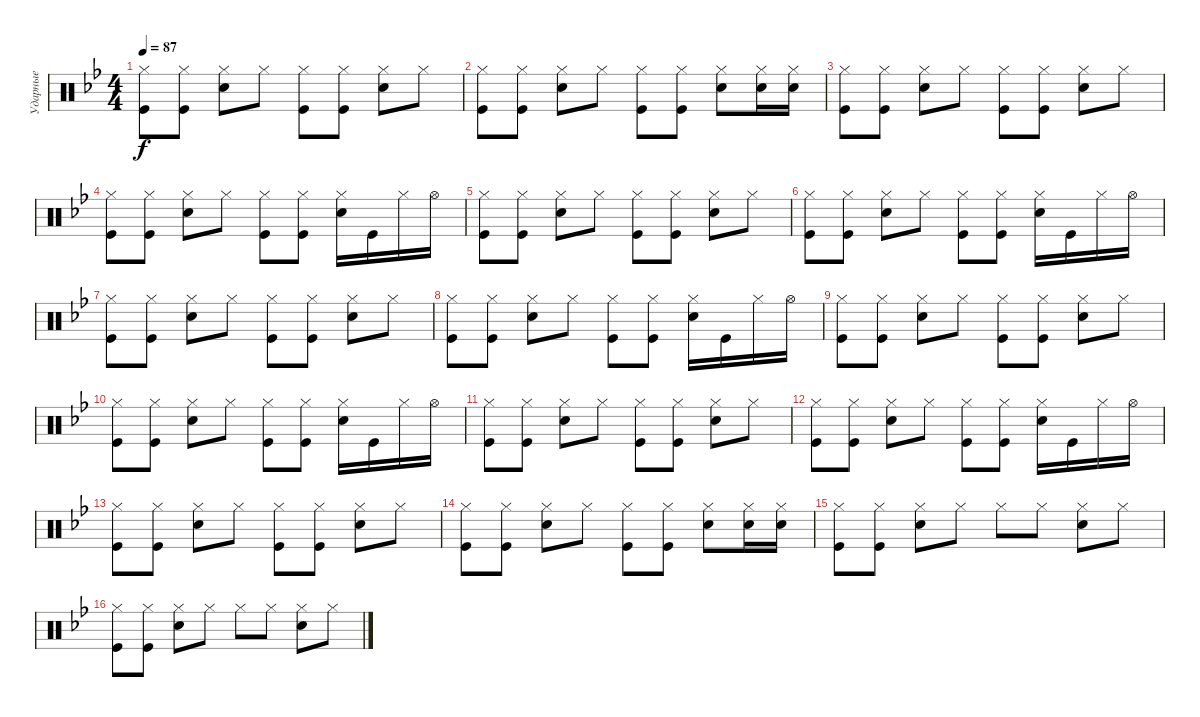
\track ("Ударные" "Ударные") {instrument percussion}
\staff {score}
\articulation defaults
\ts (4 4)
\tempo 87
\clef neutral
\ks bb
("Hi-Hat (closed)" "Kick (hit)").8{dy f} ("Hi-Hat (closed)" "Kick (hit)").8 ("Hi-Hat (closed)" "Snare (hit) 2").8 "Hi-Hat (closed)".8 ("Hi-Hat (closed)" "Kick (hit)").8 ("Hi-Hat (closed)" "Kick (hit)").8 ("Hi-Hat (closed)" "Snare (hit) 2").8 "Hi-Hat (closed)".8 |
("Hi-Hat (closed)" "Kick (hit)").8 ("Hi-Hat (closed)" "Kick (hit)").8 ("Hi-Hat (closed)" "Snare (hit) 2").8 "Hi-Hat (closed)".8 ("Hi-Hat (closed)" "Kick (hit)").8 ("Hi-Hat (closed)" "Kick (hit)").8 ("Hi-Hat (closed)" "Snare (hit) 2").8 ("Hi-Hat (closed)" "Snare (hit) 2").16 ("Hi-Hat (closed)" "Snare (hit) 2").16 |
("Hi-Hat (closed)" "Kick (hit)").8 ("Hi-Hat (closed)" "Kick (hit)").8 ("Hi-Hat (closed)" "Snare (hit) 2").8 "Hi-Hat (closed)".8 ("Hi-Hat (closed)" "Kick (hit)").8 ("Hi-Hat (closed)" "Kick (hit)").8 ("Hi-Hat (closed)" "Snare (hit) 2").8 "Hi-Hat (closed)".8 |
("Hi-Hat (closed)" "Kick (hit)").8 ("Hi-Hat (closed)" "Kick (hit)").8 ("Hi-Hat (closed)" "Snare (hit) 2").8 "Hi-Hat (closed)".8 ("Hi-Hat (closed)" "Kick (hit)").8 ("Hi-Hat (closed)" "Kick (hit)").8 ("Hi-Hat (closed)" "Snare (hit) 2").16 "Kick (hit)".16 "Hi-Hat (closed)".16 "Hi-Hat (open)".16 |
("Hi-Hat (closed)" "Kick (hit)").8 ("Hi-Hat (closed)" "Kick (hit)").8 ("Hi-Hat (closed)" "Snare (hit) 2").8 "Hi-Hat (closed)".8 ("Hi-Hat (closed)" "Kick (hit)").8 ("Hi-Hat (closed)" "Kick (hit)").8 ("Hi-Hat (closed)" "Snare (hit) 2").8 "Hi-Hat (closed)".8 |
("Hi-Hat (closed)" "Kick (hit)").8 ("Hi-Hat (closed)" "Kick (hit)").8 ("Hi-Hat (closed)" "Snare (hit) 2").8 "Hi-Hat (closed)".8 ("Hi-Hat (closed)" "Kick (hit)").8 ("Hi-Hat (closed)" "Kick (hit)").8 ("Hi-Hat (closed)" "Snare (hit) 2").16 "Kick (hit)".16 "Hi-Hat (closed)".16 "Hi-Hat (open)".16 |
("Hi-Hat (closed)" "Kick (hit)").8 ("Hi-Hat (closed)" "Kick (hit)").8 ("Hi-Hat (closed)" "Snare (hit) 2").8 "Hi-Hat (closed)".8 ("Hi-Hat (closed)" "Kick (hit)").8 ("Hi-Hat (closed)" "Kick (hit)").8 ("Hi-Hat (closed)" "Snare (hit) 2").8 "Hi-Hat (closed)".8 |
("Hi-Hat (closed)" "Kick (hit)").8 ("Hi-Hat (closed)" "Kick (hit)").8 ("Hi-Hat (closed)" "Snare (hit) 2").8 "Hi-Hat (closed)".8 ("Hi-Hat (closed)" "Kick (hit)").8 ("Hi-Hat (closed)" "Kick (hit)").8 ("Hi-Hat (closed)" "Snare (hit) 2").16 "Kick (hit)".16 "Hi-Hat (closed)".16 "Hi-Hat (open)".16 |
("Hi-Hat (closed)" "Kick (hit)").8 ("Hi-Hat (closed)" "Kick (hit)").8 ("Hi-Hat (closed)" "Snare (hit) 2").8 "Hi-Hat (closed)".8 ("Hi-Hat (closed)" "Kick (hit)").8 ("Hi-Hat (closed)" "Kick (hit)").8 ("Hi-Hat (closed)" "Snare (hit) 2").8 "Hi-Hat (closed)".8 |
("Hi-Hat (closed)" "Kick (hit)").8 ("Hi-Hat (closed)" "Kick (hit)").8 ("Hi-Hat (closed)" "Snare (hit) 2").8 "Hi-Hat (closed)".8 ("Hi-Hat (closed)" "Kick (hit)").8 ("Hi-Hat (closed)" "Kick (hit)").8 ("Hi-Hat (closed)" "Snare (hit) 2").16 "Kick (hit)".16 "Hi-Hat (closed)".16 "Hi-Hat (open)".16 |
("Hi-Hat (closed)" "Kick (hit)").8 ("Hi-Hat (closed)" "Kick (hit)").8 ("Hi-Hat (closed)" "Snare (hit) 2").8 "Hi-Hat (closed)".8 ("Hi-Hat (closed)" "Kick (hit)").8 ("Hi-Hat (closed)" "Kick (hit)").8 ("Hi-Hat (closed)" "Snare (hit) 2").8 "Hi-Hat (closed)".8 |
("Hi-Hat (closed)" "Kick (hit)").8 ("Hi-Hat (closed)" "Kick (hit)").8 ("Hi-Hat (closed)" "Snare (hit) 2").8 "Hi-Hat (closed)".8 ("Hi-Hat (closed)" "Kick (hit)").8 ("Hi-Hat (closed)" "Kick (hit)").8 ("Hi-Hat (closed)" "Snare (hit) 2").16 "Kick (hit)".16 "Hi-Hat (closed)".16 "Hi-Hat (open)".16 |
("Hi-Hat (closed)" "Kick (hit)").8 ("Hi-Hat (closed)" "Kick (hit)").8 ("Hi-Hat (closed)" "Snare (hit) 2").8 "Hi-Hat (closed)".8 ("Hi-Hat (closed)" "Kick (hit)").8 ("Hi-Hat (closed)" "Kick (hit)").8 ("Hi-Hat (closed)" "Snare (hit) 2").8 "Hi-Hat (closed)".8 |
("Hi-Hat (closed)" "Kick (hit)").8 ("Hi-Hat (closed)" "Kick (hit)").8 ("Hi-Hat (closed)" "Snare (hit) 2").8 "Hi-Hat (closed)".8 ("Hi-Hat (closed)" "Kick (hit)").8 ("Hi-Hat (closed)" "Kick (hit)").8 ("Hi-Hat (closed)" "Snare (hit) 2").8 ("Hi-Hat (closed)" "Snare (hit) 2").16 ("Hi-Hat (closed)" "Snare (hit) 2").16 |
("Hi-Hat (closed)" "Kick (hit)").8 ("Hi-Hat (closed)" "Kick (hit)").8 ("Hi-Hat (closed)" "Snare (hit) 2").8 "Hi-Hat (closed)".8 "Hi-Hat (closed)".8 "Hi-Hat (closed)".8 ("Hi-Hat (closed)" "Snare (hit) 2").8 "Hi-Hat (closed)".8 |
("Hi-Hat (closed)" "Kick (hit)").8 ("Hi-Hat (closed)" "Kick (hit)").8 ("Hi-Hat (closed)" "Snare (hit) 2").8 "Hi-Hat (closed)".8 "Hi-Hat (closed)".8 "Hi-Hat (closed)".8 ("Hi-Hat (closed)" "Snare (hit) 2").8 "Hi-Hat (closed)".8
